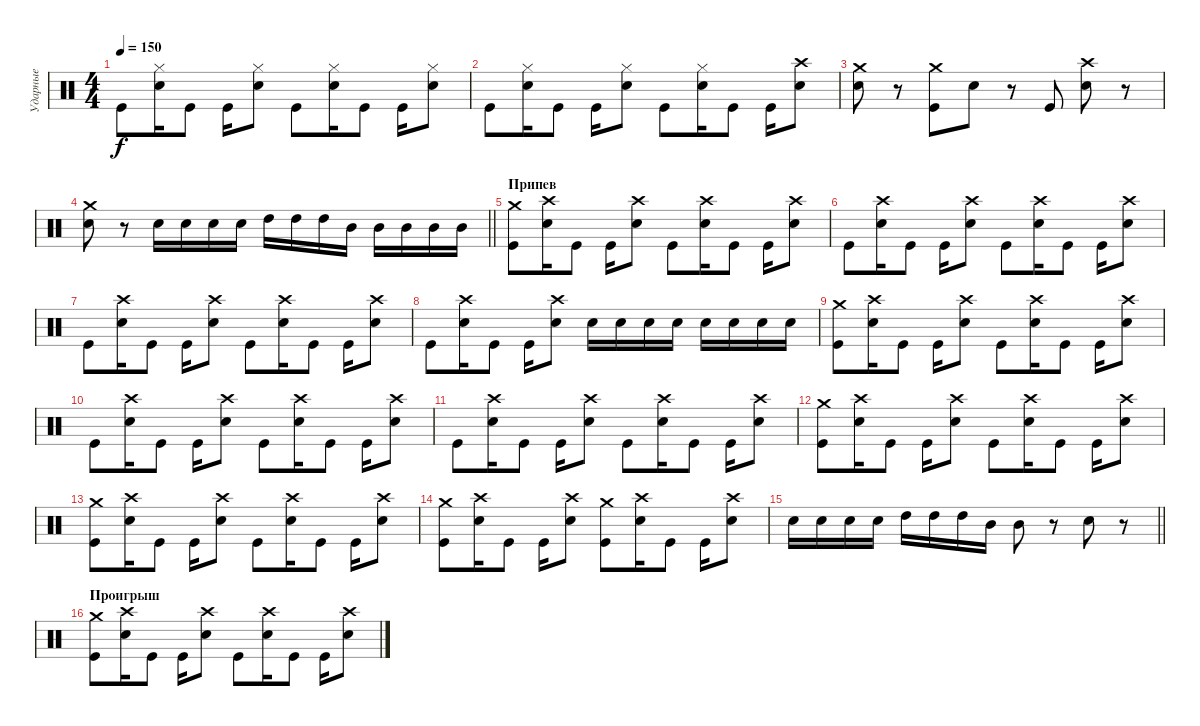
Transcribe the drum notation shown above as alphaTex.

\track ("Ударные" "Ударные") {instrument percussion}
\staff {score}
\articulation defaults
\ts (4 4)
\tempo 150
\clef neutral
\ks c "Kick (hit)".8{dy f}
("Hi-Hat (closed)" "Electric Snare (hit)").16 "Kick (hit)".8 "Kick (hit)".16 ("Hi-Hat (closed)" "Electric Snare (hit)").8 "Kick (hit)".8 ("Hi-Hat (closed)" "Electric Snare (hit)").16 "Kick (hit)".8 "Kick (hit)".16 ("Hi-Hat (closed)" "Electric Snare (hit)").8 |
"Kick (hit)".8 ("Hi-Hat (closed)" "Electric Snare (hit)").16 "Kick (hit)".8 "Kick (hit)".16 ("Hi-Hat (closed)" "Electric Snare (hit)").8 "Kick (hit)".8 ("Hi-Hat (closed)" "Electric Snare (hit)").16 "Kick (hit)".8 "Kick (hit)".16 ("Crash high (hit)" "Electric Snare (hit)").8 |
("Crash medium (hit)" "Electric Snare (hit)").8 r.8 ("Crash medium (hit)" "Kick (hit)").8 "Electric Snare (hit)".8 r.8 "Kick (hit)".8 ("Crash high (hit)" "Electric Snare (hit)").8 r.8 |
\barLineRight lightlight
("Crash medium (hit)" "Electric Snare (hit)").8 r.8 "Electric Snare (hit)".16 "Electric Snare (hit)".16 "Electric Snare (hit)".16 "Electric Snare (hit)".16 "High Tom (hit)".16 "High Tom (hit)".16 "High Tom (hit)".16 "Mid Tom (hit)".16 "Mid Tom (hit)".16 "Mid Tom (hit)".16 "Mid Tom (hit)".16 "Mid Tom (hit)".16 |
\section ("" "Припев")
("Crash medium (hit)" "Kick (hit)").8 ("Crash high (hit)" "Electric Snare (hit)").16 "Kick (hit)".8 "Kick (hit)".16 ("Crash high (hit)" "Electric Snare (hit)").8 "Kick (hit)".8 ("Crash high (hit)" "Electric Snare (hit)").16 "Kick (hit)".8 "Kick (hit)".16 ("Crash high (hit)" "Electric Snare (hit)").8 |
"Kick (hit)".8 ("Crash high (hit)" "Electric Snare (hit)").16 "Kick (hit)".8 "Kick (hit)".16 ("Crash high (hit)" "Electric Snare (hit)").8 "Kick (hit)".8 ("Crash high (hit)" "Electric Snare (hit)").16 "Kick (hit)".8 "Kick (hit)".16 ("Crash high (hit)" "Electric Snare (hit)").8 |
"Kick (hit)".8 ("Crash high (hit)" "Electric Snare (hit)").16 "Kick (hit)".8 "Kick (hit)".16 ("Crash high (hit)" "Electric Snare (hit)").8 "Kick (hit)".8 ("Crash high (hit)" "Electric Snare (hit)").16 "Kick (hit)".8 "Kick (hit)".16 ("Crash high (hit)" "Electric Snare (hit)").8 |
"Kick (hit)".8 ("Crash high (hit)" "Electric Snare (hit)").16 "Kick (hit)".8 "Kick (hit)".16 ("Crash high (hit)" "Electric Snare (hit)").8 "Electric Snare (hit)".16 "Electric Snare (hit)".16 "Electric Snare (hit)".16 "Electric Snare (hit)".16 "Electric Snare (hit)".16 "Electric Snare (hit)".16 "Electric Snare (hit)".16 "Electric Snare (hit)".16 |
("Crash medium (hit)" "Kick (hit)").8 ("Crash high (hit)" "Electric Snare (hit)").16 "Kick (hit)".8 "Kick (hit)".16 ("Crash high (hit)" "Electric Snare (hit)").8 "Kick (hit)".8 ("Crash high (hit)" "Electric Snare (hit)").16 "Kick (hit)".8 "Kick (hit)".16 ("Crash high (hit)" "Electric Snare (hit)").8 |
"Kick (hit)".8 ("Crash high (hit)" "Electric Snare (hit)").16 "Kick (hit)".8 "Kick (hit)".16 ("Crash high (hit)" "Electric Snare (hit)").8 "Kick (hit)".8 ("Crash high (hit)" "Electric Snare (hit)").16 "Kick (hit)".8 "Kick (hit)".16 ("Crash high (hit)" "Electric Snare (hit)").8 |
"Kick (hit)".8 ("Crash high (hit)" "Electric Snare (hit)").16 "Kick (hit)".8 "Kick (hit)".16 ("Crash high (hit)" "Electric Snare (hit)").8 "Kick (hit)".8 ("Crash high (hit)" "Electric Snare (hit)").16 "Kick (hit)".8 "Kick (hit)".16 ("Crash high (hit)" "Electric Snare (hit)").8 |
("Crash medium (hit)" "Kick (hit)").8 ("Crash high (hit)" "Electric Snare (hit)").16 "Kick (hit)".8 "Kick (hit)".16 ("Crash high (hit)" "Electric Snare (hit)").8 "Kick (hit)".8 ("Crash high (hit)" "Electric Snare (hit)").16 "Kick (hit)".8 "Kick (hit)".16 ("Crash high (hit)" "Electric Snare (hit)").8 |
("Crash medium (hit)" "Kick (hit)").8 ("Crash high (hit)" "Electric Snare (hit)").16 "Kick (hit)".8 "Kick (hit)".16 ("Crash high (hit)" "Electric Snare (hit)").8 "Kick (hit)".8 ("Crash high (hit)" "Electric Snare (hit)").16 "Kick (hit)".8 "Kick (hit)".16 ("Crash high (hit)" "Electric Snare (hit)").8 |
("Crash medium (hit)" "Kick (hit)").8 ("Crash high (hit)" "Electric Snare (hit)").16 "Kick (hit)".8 "Kick (hit)".16 ("Crash high (hit)" "Electric Snare (hit)").8 ("Crash medium (hit)" "Kick (hit)").8 ("Crash high (hit)" "Electric Snare (hit)").16 "Kick (hit)".8 "Kick (hit)".16 ("Crash high (hit)" "Electric Snare (hit)").8 |
\barLineRight lightlight "Electric Snare (hit)".16 "Electric Snare (hit)".16 "Electric Snare (hit)".16 "Electric Snare (hit)".16 "High Tom (hit)".16 "High Tom (hit)".16 "High Tom (hit)".16 "Mid Tom (hit)".16 "Mid Tom (hit)".8
r.8 "Electric Snare (hit)".8 r.8 |
\section ("" "Проигрыш")
("Crash medium (hit)" "Kick (hit)").8 ("Crash high (hit)" "Electric Snare (hit)").16 "Kick (hit)".8 "Kick (hit)".16 ("Crash high (hit)" "Electric Snare (hit)").8 "Kick (hit)".8 ("Crash high (hit)" "Electric Snare (hit)").16 "Kick (hit)".8 "Kick (hit)".16 ("Crash high (hit)" "Electric Snare (hit)").8
